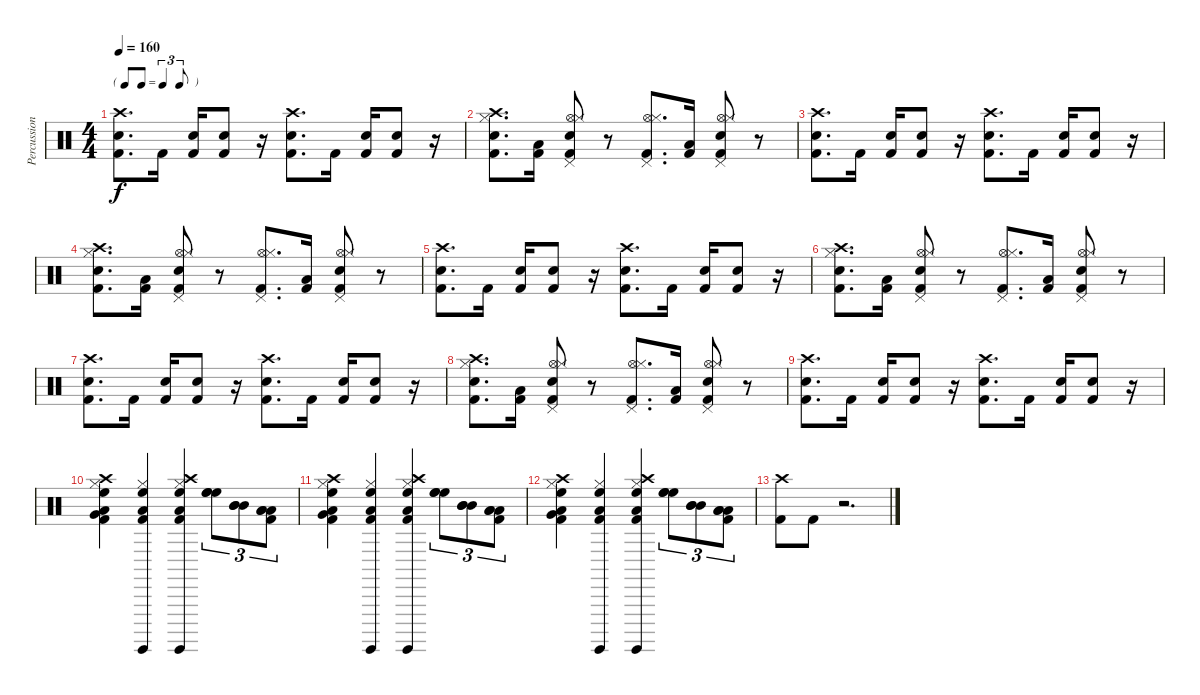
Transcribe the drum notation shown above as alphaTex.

\track ("Percussion" "Percussion") {instrument percussion}
\staff {score}
\articulation defaults
\ts (4 4)
\tf triplet8th
\tempo 160
\clef neutral
\ks c
("Crash high (hit)" "Kick (hit) 2" "Electric Snare (hit)").8{d dy f} "Kick (hit) 2".16 ("Kick (hit) 2" "Electric Snare (hit)").16 ("Kick (hit) 2" "Electric Snare (hit)").8 r.16 ("Crash high (hit)" "Kick (hit) 2" "Electric Snare (hit)").8{d} "Kick (hit) 2".16 ("Kick (hit) 2" "Electric Snare (hit)").16 ("Kick (hit) 2" "Electric Snare (hit)").8 r.16 |
("Crash high (hit)" "Kick (hit) 2" "Hi-Hat (closed)" "Electric Snare (hit)").8{d} ("Kick (hit) 2" "Low Tom (hit)").16 ("Hi-Hat (open)" "Kick (hit) 2" "Hi-Hat (closed)" "Pedal Hi-Hat (hit)" "Electric Snare (hit)").8 r.8 ("Hi-Hat (open)" "Kick (hit) 2" "Hi-Hat (closed)" "Pedal Hi-Hat (hit)").8{d} ("Kick (hit) 2" "Low Tom (hit)").16 ("Hi-Hat (open)" "Kick (hit) 2" "Hi-Hat (closed)" "Electric Snare (hit)" "Pedal Hi-Hat (hit)").8 r.8 |
("Crash high (hit)" "Kick (hit) 2" "Electric Snare (hit)").8{d} "Kick (hit) 2".16 ("Kick (hit) 2" "Electric Snare (hit)").16 ("Kick (hit) 2" "Electric Snare (hit)").8 r.16 ("Crash high (hit)" "Kick (hit) 2" "Electric Snare (hit)").8{d} "Kick (hit) 2".16 ("Kick (hit) 2" "Electric Snare (hit)").16 ("Kick (hit) 2" "Electric Snare (hit)").8 r.16 |
("Crash high (hit)" "Kick (hit) 2" "Hi-Hat (closed)" "Electric Snare (hit)").8{d} ("Kick (hit) 2" "Low Tom (hit)").16 ("Hi-Hat (open)" "Kick (hit) 2" "Hi-Hat (closed)" "Pedal Hi-Hat (hit)" "Electric Snare (hit)").8 r.8 ("Hi-Hat (open)" "Kick (hit) 2" "Hi-Hat (closed)" "Pedal Hi-Hat (hit)").8{d} ("Kick (hit) 2" "Low Tom (hit)").16 ("Hi-Hat (open)" "Kick (hit) 2" "Hi-Hat (closed)" "Electric Snare (hit)" "Pedal Hi-Hat (hit)").8 r.8 |
("Crash high (hit)" "Kick (hit) 2" "Electric Snare (hit)").8{d} "Kick (hit) 2".16 ("Kick (hit) 2" "Electric Snare (hit)").16 ("Kick (hit) 2" "Electric Snare (hit)").8 r.16 ("Crash high (hit)" "Kick (hit) 2" "Electric Snare (hit)").8{d} "Kick (hit) 2".16 ("Kick (hit) 2" "Electric Snare (hit)").16 ("Kick (hit) 2" "Electric Snare (hit)").8 r.16 |
("Crash high (hit)" "Kick (hit) 2" "Hi-Hat (closed)" "Electric Snare (hit)").8{d} ("Kick (hit) 2" "Low Tom (hit)").16 ("Hi-Hat (open)" "Kick (hit) 2" "Hi-Hat (closed)" "Pedal Hi-Hat (hit)" "Electric Snare (hit)").8 r.8 ("Hi-Hat (open)" "Kick (hit) 2" "Hi-Hat (closed)" "Pedal Hi-Hat (hit)").8{d} ("Kick (hit) 2" "Low Tom (hit)").16 ("Hi-Hat (open)" "Kick (hit) 2" "Hi-Hat (closed)" "Electric Snare (hit)" "Pedal Hi-Hat (hit)").8 r.8 |
("Crash high (hit)" "Kick (hit) 2" "Electric Snare (hit)").8{d} "Kick (hit) 2".16 ("Kick (hit) 2" "Electric Snare (hit)").16 ("Kick (hit) 2" "Electric Snare (hit)").8 r.16 ("Crash high (hit)" "Kick (hit) 2" "Electric Snare (hit)").8{d} "Kick (hit) 2".16 ("Kick (hit) 2" "Electric Snare (hit)").16 ("Kick (hit) 2" "Electric Snare (hit)").8 r.16 |
("Crash high (hit)" "Kick (hit) 2" "Hi-Hat (closed)" "Electric Snare (hit)").8{d} ("Kick (hit) 2" "Low Tom (hit)").16 ("Hi-Hat (open)" "Kick (hit) 2" "Hi-Hat (closed)" "Pedal Hi-Hat (hit)" "Electric Snare (hit)").8 r.8 ("Hi-Hat (open)" "Kick (hit) 2" "Hi-Hat (closed)" "Pedal Hi-Hat (hit)").8{d} ("Kick (hit) 2" "Low Tom (hit)").16 ("Hi-Hat (open)" "Kick (hit) 2" "Hi-Hat (closed)" "Electric Snare (hit)" "Pedal Hi-Hat (hit)").8 r.8 |
("Crash high (hit)" "Kick (hit) 2" "Electric Snare (hit)").8{d} "Kick (hit) 2".16 ("Kick (hit) 2" "Electric Snare (hit)").16 ("Kick (hit) 2" "Electric Snare (hit)").8 r.16 ("Crash high (hit)" "Kick (hit) 2" "Electric Snare (hit)").8{d} "Kick (hit) 2".16 ("Kick (hit) 2" "Electric Snare (hit)").16 ("Kick (hit) 2" "Electric Snare (hit)").8 r.16 |
("Hi-Hat (closed)" "Crash high (hit)" "High Floor Tom (hit)" "Very Low Tom (hit)" "Kick (hit) 2" "Low Floor Tom (hit)").4 ("Hi-Hat (closed)" "High Floor Tom (hit)" "Surdo (hit)" "Kick (hit) 2" "Low Floor Tom (hit)").4 ("Hi-Hat (closed)" "Crash high (hit)" "High Floor Tom (hit)" "Surdo (hit)" "Kick (hit) 2" "Low Floor Tom (hit)").4 ("High Floor Tom (hit)" "High Floor Tom (hit)" "High Floor Tom (hit)").8{tu (3 2)} ("Mid Tom (hit)" "Mid Tom (hit)" "Mid Tom (hit)").8{tu (3 2)} ("Kick (hit) 2" "Low Floor Tom (hit)" "Low Floor Tom (hit)" "Low Floor Tom (hit)").8{tu (3 2)} |
("Hi-Hat (closed)" "Crash high (hit)" "High Floor Tom (hit)" "Very Low Tom (hit)" "Kick (hit) 2" "Low Floor Tom (hit)").4 ("Hi-Hat (closed)" "High Floor Tom (hit)" "Surdo (hit)" "Kick (hit) 2" "Low Floor Tom (hit)").4 ("Hi-Hat (closed)" "Crash high (hit)" "High Floor Tom (hit)" "Surdo (hit)" "Kick (hit) 2" "Low Floor Tom (hit)").4 ("High Floor Tom (hit)" "High Floor Tom (hit)" "High Floor Tom (hit)").8{tu (3 2)} ("Mid Tom (hit)" "Mid Tom (hit)" "Mid Tom (hit)").8{tu (3 2)} ("Kick (hit) 2" "Low Floor Tom (hit)" "Low Floor Tom (hit)" "Low Floor Tom (hit)").8{tu (3 2)} |
("Hi-Hat (closed)" "Crash high (hit)" "High Floor Tom (hit)" "Very Low Tom (hit)" "Kick (hit) 2" "Low Floor Tom (hit)").4 ("Hi-Hat (closed)" "High Floor Tom (hit)" "Surdo (hit)" "Kick (hit) 2" "Low Floor Tom (hit)").4 ("Hi-Hat (closed)" "Crash high (hit)" "High Floor Tom (hit)" "Surdo (hit)" "Kick (hit) 2" "Low Floor Tom (hit)").4 ("High Floor Tom (hit)" "High Floor Tom (hit)" "High Floor Tom (hit)").8{tu (3 2)} ("Mid Tom (hit)" "Mid Tom (hit)" "Mid Tom (hit)").8{tu (3 2)} ("Kick (hit) 2" "Low Floor Tom (hit)" "Low Floor Tom (hit)" "Low Floor Tom (hit)").8{tu (3 2)} |
("Crash high (hit)" "Kick (hit) 2").8 "Kick (hit) 2".8 r.2{d}
